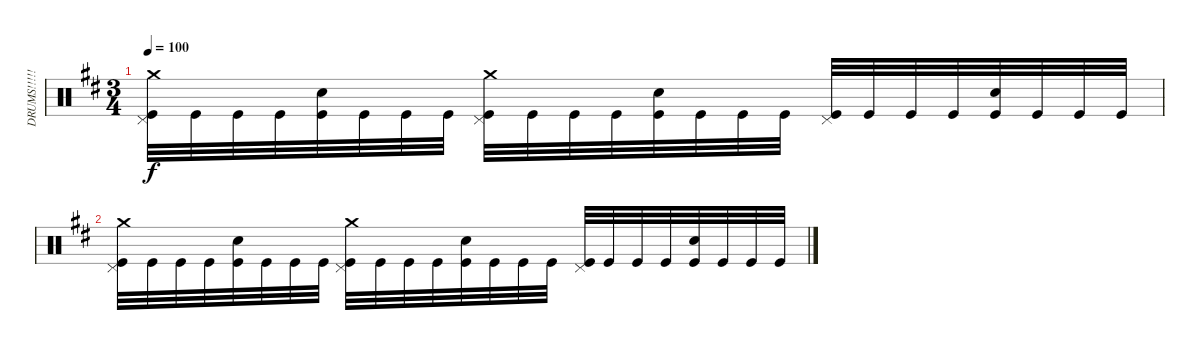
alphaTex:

\track ("DRUMS!!!!!" "DRUMS!!!!!") {instrument percussion}
\staff {score}
\articulation defaults
\ts (3 4)
\tempo 100
\clef neutral
\ks d
("Kick (hit)" "Pedal Hi-Hat (hit)" "Crash medium (hit)").32{dy f} "Kick (hit)".32 "Kick (hit)".32 "Kick (hit)".32 ("Kick (hit)" "Snare (hit) 2").32 "Kick (hit)".32 "Kick (hit)".32 "Kick (hit)".32 ("Kick (hit)" "Pedal Hi-Hat (hit)" "Crash medium (hit)").32 "Kick (hit)".32 "Kick (hit)".32 "Kick (hit)".32 ("Kick (hit)" "Snare (hit) 2").32 "Kick (hit)".32 "Kick (hit)".32 "Kick (hit)".32 ("Kick (hit)" "Pedal Hi-Hat (hit)").32 "Kick (hit)".32 "Kick (hit)".32 "Kick (hit)".32 ("Kick (hit)" "Snare (hit) 2").32 "Kick (hit)".32 "Kick (hit)".32 "Kick (hit)".32 |
("Kick (hit)" "Pedal Hi-Hat (hit)" "Crash medium (hit)").32 "Kick (hit)".32 "Kick (hit)".32 "Kick (hit)".32 ("Kick (hit)" "Snare (hit) 2").32 "Kick (hit)".32 "Kick (hit)".32 "Kick (hit)".32 ("Kick (hit)" "Pedal Hi-Hat (hit)" "Crash medium (hit)").32 "Kick (hit)".32 "Kick (hit)".32 "Kick (hit)".32 ("Kick (hit)" "Snare (hit) 2").32 "Kick (hit)".32 "Kick (hit)".32 "Kick (hit)".32 ("Kick (hit)" "Pedal Hi-Hat (hit)").32 "Kick (hit)".32 "Kick (hit)".32 "Kick (hit)".32 ("Kick (hit)" "Snare (hit) 2").32 "Kick (hit)".32 "Kick (hit)".32 "Kick (hit)".32
